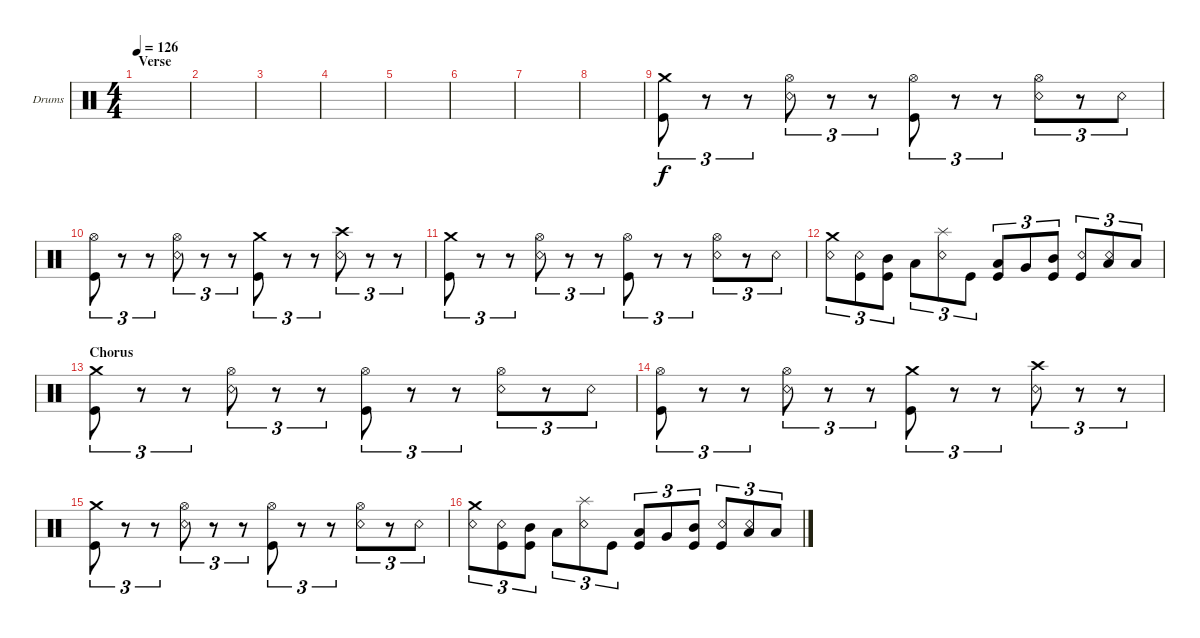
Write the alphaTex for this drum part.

\defaultSystemsLayout 4
\bracketExtendMode groupsimilarinstruments
\firstSystemTrackNameOrientation horizontal
\otherSystemsTrackNameOrientation horizontal
\track ("Dominic Howard" "Drums") {instrument percussion}
\staff {score}
\articulation defaults
\ts (4 4)
\section ("" "Verse")
\tempo 126
\clef neutral
\ks c
|
|
|
|
|
|
|
|
("Kick (hit)" "Crash medium (hit)").8{tu (3 2)} r.8{tu (3 2)} r.8{tu (3 2)} ("Snare (rim shot)" "Hi-Hat (open)").8{tu (3 2)} r.8{tu (3 2)} r.8{tu (3 2)} ("Kick (hit)" "Hi-Hat (open)").8{tu (3 2)} r.8{tu (3 2)} r.8{tu (3 2)} ("Snare (rim shot)" "Hi-Hat (open)").8{tu (3 2)} r.8{tu (3 2)} "Snare (rim shot)".8{tu (3 2)} |
("Kick (hit)" "Hi-Hat (open)").8{tu (3 2)} r.8{tu (3 2)} r.8{tu (3 2)} ("Snare (rim shot)" "Hi-Hat (open)").8{tu (3 2)} r.8{tu (3 2)} r.8{tu (3 2)} ("Kick (hit)" "Crash medium (hit)").8{tu (3 2)} r.8{tu (3 2)} r.8{tu (3 2)} ("Snare (rim shot)" "Crash high (hit)").8{tu (3 2)} r.8{tu (3 2)} r.8{tu (3 2)} |
("Kick (hit)" "Crash medium (hit)").8{tu (3 2)} r.8{tu (3 2)} r.8{tu (3 2)} ("Snare (rim shot)" "Hi-Hat (open)").8{tu (3 2)} r.8{tu (3 2)} r.8{tu (3 2)} ("Kick (hit)" "Hi-Hat (open)").8{tu (3 2)} r.8{tu (3 2)} r.8{tu (3 2)} ("Snare (rim shot)" "Hi-Hat (open)").8{tu (3 2)} r.8{tu (3 2)} "Snare (rim shot)".8{tu (3 2)} |
("Snare (rim shot)" "Crash medium (hit)").8{tu (3 2)} ("Snare (rim shot)" "Kick (hit)").8{tu (3 2)} ("Mid Tom (hit)" "Kick (hit)").8{tu (3 2)} "Low Tom (hit)".8{tu (3 2)} ("Snare (rim shot)" "Splash (hit)").8{tu (3 2)} "Kick (hit)".8{tu (3 2)} ("Low Tom (hit)" "Kick (hit)").8{tu (3 2)} "Very Low Tom (hit)".8{tu (3 2)} ("Mid Tom (hit)" "Kick (hit)").8{tu (3 2)} ("Snare (rim shot)" "Kick (hit)").8{tu (3 2)} ("Snare (rim shot)" "Low Tom (hit)").8{tu (3 2)} "Low Tom (hit)".8{tu (3 2)} |
\section ("" "Chorus")
("Kick (hit)" "Crash medium (hit)").8{tu (3 2)} r.8{tu (3 2)} r.8{tu (3 2)} ("Snare (rim shot)" "Hi-Hat (open)").8{tu (3 2)} r.8{tu (3 2)} r.8{tu (3 2)} ("Kick (hit)" "Hi-Hat (open)").8{tu (3 2)} r.8{tu (3 2)} r.8{tu (3 2)} ("Snare (rim shot)" "Hi-Hat (open)").8{tu (3 2)} r.8{tu (3 2)} "Snare (rim shot)".8{tu (3 2)} |
("Kick (hit)" "Hi-Hat (open)").8{tu (3 2)} r.8{tu (3 2)} r.8{tu (3 2)} ("Snare (rim shot)" "Hi-Hat (open)").8{tu (3 2)} r.8{tu (3 2)} r.8{tu (3 2)} ("Kick (hit)" "Crash medium (hit)").8{tu (3 2)} r.8{tu (3 2)} r.8{tu (3 2)} ("Snare (rim shot)" "Crash high (hit)").8{tu (3 2)} r.8{tu (3 2)} r.8{tu (3 2)} |
("Kick (hit)" "Crash medium (hit)").8{tu (3 2)} r.8{tu (3 2)} r.8{tu (3 2)} ("Snare (rim shot)" "Hi-Hat (open)").8{tu (3 2)} r.8{tu (3 2)} r.8{tu (3 2)} ("Kick (hit)" "Hi-Hat (open)").8{tu (3 2)} r.8{tu (3 2)} r.8{tu (3 2)} ("Snare (rim shot)" "Hi-Hat (open)").8{tu (3 2)} r.8{tu (3 2)} "Snare (rim shot)".8{tu (3 2)} |
("Snare (rim shot)" "Crash medium (hit)").8{tu (3 2)} ("Snare (rim shot)" "Kick (hit)").8{tu (3 2)} ("Mid Tom (hit)" "Kick (hit)").8{tu (3 2)} "Low Tom (hit)".8{tu (3 2)} ("Snare (rim shot)" "Splash (hit)").8{tu (3 2)} "Kick (hit)".8{tu (3 2)} ("Low Tom (hit)" "Kick (hit)").8{tu (3 2)} "Very Low Tom (hit)".8{tu (3 2)} ("Mid Tom (hit)" "Kick (hit)").8{tu (3 2)} ("Snare (rim shot)" "Kick (hit)").8{tu (3 2)} ("Snare (rim shot)" "Low Tom (hit)").8{tu (3 2)} "Low Tom (hit)".8{tu (3 2)}
